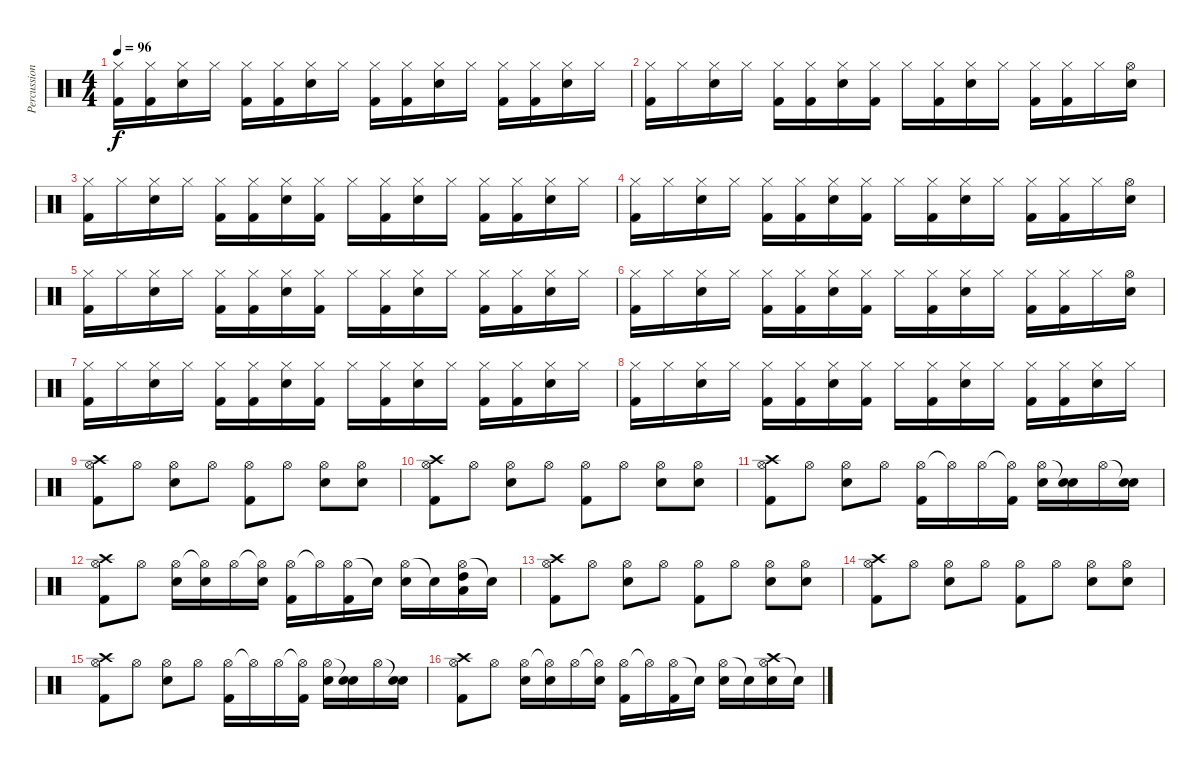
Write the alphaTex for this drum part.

\track ("Percussion" "Percussion") {instrument percussion}
\staff {score}
\articulation defaults
\ts (4 4)
\tempo 96
\clef neutral
\ks c
("Hi-Hat (closed)" "Kick (hit) 2").16{dy f} ("Hi-Hat (closed)" "Kick (hit) 2").16 ("Hi-Hat (closed)" "Electric Snare (hit)").16 "Hi-Hat (closed)".16 ("Hi-Hat (closed)" "Kick (hit) 2").16 ("Hi-Hat (closed)" "Kick (hit) 2").16 ("Hi-Hat (closed)" "Electric Snare (hit)").16 "Hi-Hat (closed)".16 ("Hi-Hat (closed)" "Kick (hit) 2").16 ("Hi-Hat (closed)" "Kick (hit) 2").16 ("Hi-Hat (closed)" "Electric Snare (hit)").16 "Hi-Hat (closed)".16 ("Hi-Hat (closed)" "Kick (hit) 2").16 ("Hi-Hat (closed)" "Kick (hit) 2").16 ("Hi-Hat (closed)" "Electric Snare (hit)").16 "Hi-Hat (closed)".16 |
("Hi-Hat (closed)" "Kick (hit) 2").16 "Hi-Hat (closed)".16 ("Hi-Hat (closed)" "Electric Snare (hit)").16 "Hi-Hat (closed)".16 ("Hi-Hat (closed)" "Kick (hit) 2").16 ("Hi-Hat (closed)" "Kick (hit) 2").16 ("Hi-Hat (closed)" "Electric Snare (hit)").16 ("Hi-Hat (closed)" "Kick (hit) 2").16 "Hi-Hat (closed)".16 ("Hi-Hat (closed)" "Kick (hit) 2").16 ("Hi-Hat (closed)" "Electric Snare (hit)").16 "Hi-Hat (closed)".16 ("Hi-Hat (closed)" "Kick (hit) 2").16 ("Hi-Hat (closed)" "Kick (hit) 2").16 "Hi-Hat (closed)".16 ("Hi-Hat (open)" "Electric Snare (hit)").16 |
("Hi-Hat (closed)" "Kick (hit) 2").16 "Hi-Hat (closed)".16 ("Hi-Hat (closed)" "Electric Snare (hit)").16 "Hi-Hat (closed)".16 ("Hi-Hat (closed)" "Kick (hit) 2").16 ("Hi-Hat (closed)" "Kick (hit) 2").16 ("Hi-Hat (closed)" "Electric Snare (hit)").16 ("Hi-Hat (closed)" "Kick (hit) 2").16 "Hi-Hat (closed)".16 ("Hi-Hat (closed)" "Kick (hit) 2").16 ("Hi-Hat (closed)" "Electric Snare (hit)").16 "Hi-Hat (closed)".16 ("Hi-Hat (closed)" "Kick (hit) 2").16 ("Hi-Hat (closed)" "Kick (hit) 2").16 ("Hi-Hat (closed)" "Electric Snare (hit)").16 "Hi-Hat (closed)".16 |
("Hi-Hat (closed)" "Kick (hit) 2").16 "Hi-Hat (closed)".16 ("Hi-Hat (closed)" "Electric Snare (hit)").16 "Hi-Hat (closed)".16 ("Hi-Hat (closed)" "Kick (hit) 2").16 ("Hi-Hat (closed)" "Kick (hit) 2").16 ("Hi-Hat (closed)" "Electric Snare (hit)").16 ("Hi-Hat (closed)" "Kick (hit) 2").16 "Hi-Hat (closed)".16 ("Hi-Hat (closed)" "Kick (hit) 2").16 ("Hi-Hat (closed)" "Electric Snare (hit)").16 "Hi-Hat (closed)".16 ("Hi-Hat (closed)" "Kick (hit) 2").16 ("Hi-Hat (closed)" "Kick (hit) 2").16 "Hi-Hat (closed)".16 ("Hi-Hat (open)" "Electric Snare (hit)").16 |
("Hi-Hat (closed)" "Kick (hit) 2").16 "Hi-Hat (closed)".16 ("Hi-Hat (closed)" "Electric Snare (hit)").16 "Hi-Hat (closed)".16 ("Hi-Hat (closed)" "Kick (hit) 2").16 ("Hi-Hat (closed)" "Kick (hit) 2").16 ("Hi-Hat (closed)" "Electric Snare (hit)").16 ("Hi-Hat (closed)" "Kick (hit) 2").16 "Hi-Hat (closed)".16 ("Hi-Hat (closed)" "Kick (hit) 2").16 ("Hi-Hat (closed)" "Electric Snare (hit)").16 "Hi-Hat (closed)".16 ("Hi-Hat (closed)" "Kick (hit) 2").16 ("Hi-Hat (closed)" "Kick (hit) 2").16 ("Hi-Hat (closed)" "Electric Snare (hit)").16 "Hi-Hat (closed)".16 |
("Hi-Hat (closed)" "Kick (hit) 2").16 "Hi-Hat (closed)".16 ("Hi-Hat (closed)" "Electric Snare (hit)").16 "Hi-Hat (closed)".16 ("Hi-Hat (closed)" "Kick (hit) 2").16 ("Hi-Hat (closed)" "Kick (hit) 2").16 ("Hi-Hat (closed)" "Electric Snare (hit)").16 ("Hi-Hat (closed)" "Kick (hit) 2").16 "Hi-Hat (closed)".16 ("Hi-Hat (closed)" "Kick (hit) 2").16 ("Hi-Hat (closed)" "Electric Snare (hit)").16 "Hi-Hat (closed)".16 ("Hi-Hat (closed)" "Kick (hit) 2").16 ("Hi-Hat (closed)" "Kick (hit) 2").16 "Hi-Hat (closed)".16 ("Hi-Hat (open)" "Electric Snare (hit)").16 |
("Hi-Hat (closed)" "Kick (hit) 2").16 "Hi-Hat (closed)".16 ("Hi-Hat (closed)" "Electric Snare (hit)").16 "Hi-Hat (closed)".16 ("Hi-Hat (closed)" "Kick (hit) 2").16 ("Hi-Hat (closed)" "Kick (hit) 2").16 ("Hi-Hat (closed)" "Electric Snare (hit)").16 ("Hi-Hat (closed)" "Kick (hit) 2").16 "Hi-Hat (closed)".16 ("Hi-Hat (closed)" "Kick (hit) 2").16 ("Hi-Hat (closed)" "Electric Snare (hit)").16 "Hi-Hat (closed)".16 ("Hi-Hat (closed)" "Kick (hit) 2").16 ("Hi-Hat (closed)" "Kick (hit) 2").16 ("Hi-Hat (closed)" "Electric Snare (hit)").16 "Hi-Hat (closed)".16 |
("Hi-Hat (closed)" "Kick (hit) 2").16 "Hi-Hat (closed)".16 ("Hi-Hat (closed)" "Electric Snare (hit)").16 "Hi-Hat (closed)".16 ("Hi-Hat (closed)" "Kick (hit) 2").16 ("Hi-Hat (closed)" "Kick (hit) 2").16 ("Hi-Hat (closed)" "Electric Snare (hit)").16 ("Hi-Hat (closed)" "Kick (hit) 2").16 "Hi-Hat (closed)".16 ("Hi-Hat (closed)" "Kick (hit) 2").16 ("Hi-Hat (closed)" "Electric Snare (hit)").16 "Hi-Hat (closed)".16 ("Hi-Hat (closed)" "Kick (hit) 2").16 ("Hi-Hat (closed)" "Kick (hit) 2").16 ("Hi-Hat (closed)" "Electric Snare (hit)").16 "Hi-Hat (closed)".16 |
("Hi-Hat (open)" "Kick (hit) 2" "Crash high (hit)").8 "Hi-Hat (open)".8 ("Hi-Hat (open)" "Electric Snare (hit)").8 "Hi-Hat (open)".8 ("Hi-Hat (open)" "Kick (hit) 2").8 "Hi-Hat (open)".8 ("Hi-Hat (open)" "Electric Snare (hit)").8 ("Hi-Hat (open)" "Electric Snare (hit)").8 |
("Hi-Hat (open)" "Kick (hit) 2" "Crash high (hit)").8 "Hi-Hat (open)".8 ("Hi-Hat (open)" "Electric Snare (hit)").8 "Hi-Hat (open)".8 ("Hi-Hat (open)" "Kick (hit) 2").8 "Hi-Hat (open)".8 ("Hi-Hat (open)" "Electric Snare (hit)").8 ("Hi-Hat (open)" "Electric Snare (hit)").8 |
("Hi-Hat (open)" "Kick (hit) 2" "Crash high (hit)").8 "Hi-Hat (open)".8 ("Hi-Hat (open)" "Electric Snare (hit)").8 "Hi-Hat (open)".8 ("Hi-Hat (open)" "Kick (hit) 2").16 "Hi-Hat (open)"{t}.16 "Hi-Hat (open)".16 ("Hi-Hat (open)"{t} "Kick (hit) 2").16 ("Hi-Hat (open)" "Electric Snare (hit)").16 ("Snare (hit)"{t} "Electric Snare (hit)").16 "Hi-Hat (open)".16 ("Snare (hit)"{t} "Electric Snare (hit)").16 |
("Hi-Hat (open)" "Kick (hit) 2" "Crash high (hit)").8 "Hi-Hat (open)".8 ("Hi-Hat (open)" "Electric Snare (hit)").16 ("Hi-Hat (open)"{t} "Electric Snare (hit)").16 "Hi-Hat (open)".16 ("Hi-Hat (open)"{t} "Electric Snare (hit)").16 ("Hi-Hat (open)" "Kick (hit) 2").16 "Hi-Hat (open)"{t}.16 ("Hi-Hat (open)" "Kick (hit) 2").16 "Snare (hit)"{t}.16 ("Hi-Hat (open)" "Electric Snare (hit)").16 "Snare (hit)"{t}.16 ("Hi-Hat (open)" "High Tom (hit)" "Low Tom (hit)").16 "Snare (hit)"{t}.16 |
("Hi-Hat (open)" "Kick (hit) 2" "Crash high (hit)").8 "Hi-Hat (open)".8 ("Hi-Hat (open)" "Electric Snare (hit)").8 "Hi-Hat (open)".8 ("Hi-Hat (open)" "Kick (hit) 2").8 "Hi-Hat (open)".8 ("Hi-Hat (open)" "Electric Snare (hit)").8 ("Hi-Hat (open)" "Electric Snare (hit)").8 |
("Hi-Hat (open)" "Kick (hit) 2" "Crash high (hit)").8 "Hi-Hat (open)".8 ("Hi-Hat (open)" "Electric Snare (hit)").8 "Hi-Hat (open)".8 ("Hi-Hat (open)" "Kick (hit) 2").8 "Hi-Hat (open)".8 ("Hi-Hat (open)" "Electric Snare (hit)").8 ("Hi-Hat (open)" "Electric Snare (hit)").8 |
("Hi-Hat (open)" "Kick (hit) 2" "Crash high (hit)").8 "Hi-Hat (open)".8 ("Hi-Hat (open)" "Electric Snare (hit)").8 "Hi-Hat (open)".8 ("Hi-Hat (open)" "Kick (hit) 2").16 "Hi-Hat (open)"{t}.16 "Hi-Hat (open)".16 ("Hi-Hat (open)"{t} "Kick (hit) 2").16 ("Hi-Hat (open)" "Electric Snare (hit)").16 ("Snare (hit)"{t} "Electric Snare (hit)").16 "Hi-Hat (open)".16 ("Snare (hit)"{t} "Electric Snare (hit)").16 |
("Hi-Hat (open)" "Kick (hit) 2" "Crash high (hit)").8 "Hi-Hat (open)".8 ("Hi-Hat (open)" "Electric Snare (hit)").16 ("Hi-Hat (open)"{t} "Electric Snare (hit)").16 "Hi-Hat (open)".16 ("Hi-Hat (open)"{t} "Electric Snare (hit)").16 ("Hi-Hat (open)" "Kick (hit) 2").16 "Hi-Hat (open)"{t}.16 ("Hi-Hat (open)" "Kick (hit) 2").16 "Snare (hit)"{t}.16 ("Hi-Hat (open)" "Electric Snare (hit)").16 "Snare (hit)"{t}.16 ("Hi-Hat (open)" "Electric Snare (hit)" "Crash high (hit)").16 "Snare (hit)"{t}.16
